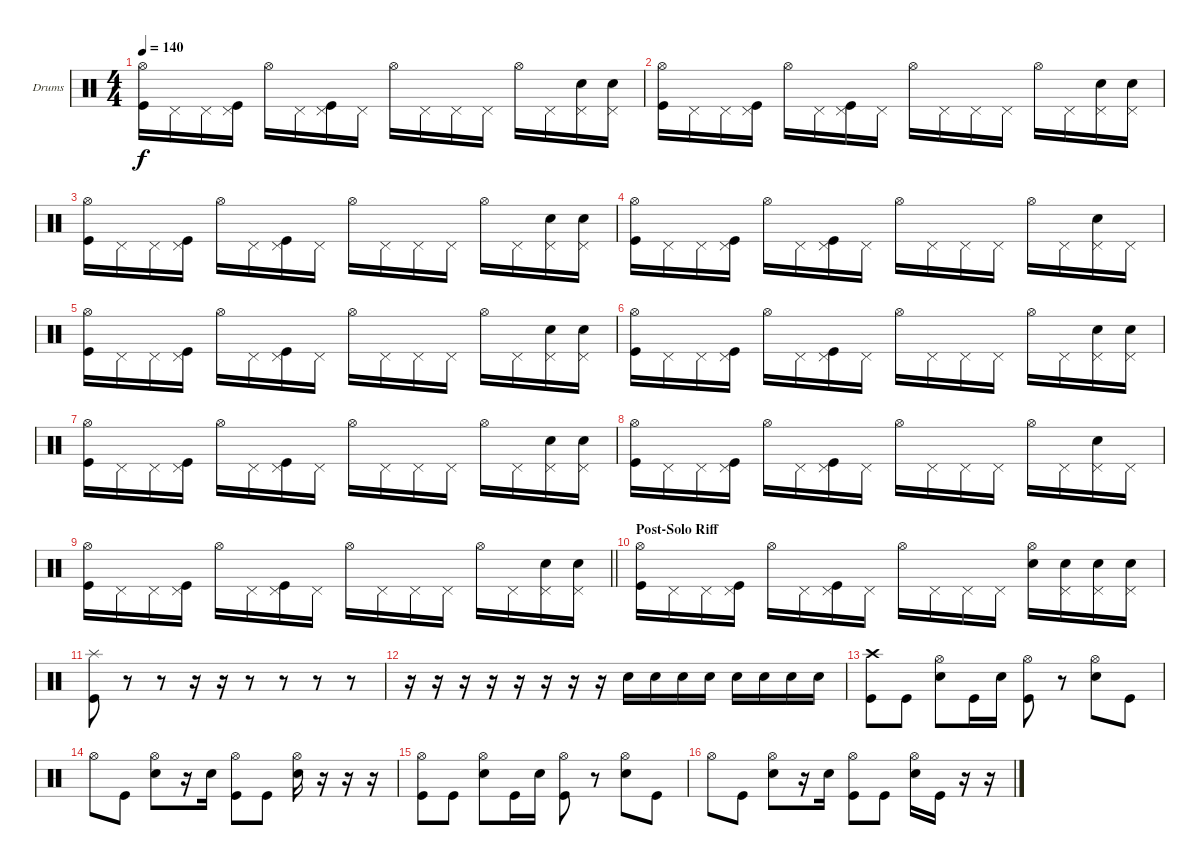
\bracketExtendMode groupsimilarinstruments
\firstSystemTrackNameOrientation horizontal
\otherSystemsTrackNameOrientation horizontal
\track ("Dave McClain" "Drums") {instrument percussion}
\staff {score}
\articulation defaults
\ts (4 4)
\tempo 140
\clef neutral
\ks c
("Hi-Hat (open)" "Kick (hit)").16{dy f} "Pedal Hi-Hat (hit)".16 "Pedal Hi-Hat (hit)".16 ("Pedal Hi-Hat (hit)" "Kick (hit)").16 "Hi-Hat (open)".16 "Pedal Hi-Hat (hit)".16 ("Pedal Hi-Hat (hit)" "Kick (hit)").16 "Pedal Hi-Hat (hit)".16 "Hi-Hat (open)".16 "Pedal Hi-Hat (hit)".16 "Pedal Hi-Hat (hit)".16 "Pedal Hi-Hat (hit)".16 "Hi-Hat (open)".16 "Pedal Hi-Hat (hit)".16 ("Pedal Hi-Hat (hit)" "Snare (hit) 2").16 ("Pedal Hi-Hat (hit)" "Snare (hit) 2").16 |
("Hi-Hat (open)" "Kick (hit)").16 "Pedal Hi-Hat (hit)".16 "Pedal Hi-Hat (hit)".16 ("Pedal Hi-Hat (hit)" "Kick (hit)").16 "Hi-Hat (open)".16 "Pedal Hi-Hat (hit)".16 ("Pedal Hi-Hat (hit)" "Kick (hit)").16 "Pedal Hi-Hat (hit)".16 "Hi-Hat (open)".16 "Pedal Hi-Hat (hit)".16 "Pedal Hi-Hat (hit)".16 "Pedal Hi-Hat (hit)".16 "Hi-Hat (open)".16 "Pedal Hi-Hat (hit)".16 ("Pedal Hi-Hat (hit)" "Snare (hit) 2").16 ("Pedal Hi-Hat (hit)" "Snare (hit) 2").16 |
("Hi-Hat (open)" "Kick (hit)").16 "Pedal Hi-Hat (hit)".16 "Pedal Hi-Hat (hit)".16 ("Pedal Hi-Hat (hit)" "Kick (hit)").16 "Hi-Hat (open)".16 "Pedal Hi-Hat (hit)".16 ("Pedal Hi-Hat (hit)" "Kick (hit)").16 "Pedal Hi-Hat (hit)".16 "Hi-Hat (open)".16 "Pedal Hi-Hat (hit)".16 "Pedal Hi-Hat (hit)".16 "Pedal Hi-Hat (hit)".16 "Hi-Hat (open)".16 "Pedal Hi-Hat (hit)".16 ("Pedal Hi-Hat (hit)" "Snare (hit) 2").16 ("Pedal Hi-Hat (hit)" "Snare (hit) 2").16 |
("Hi-Hat (open)" "Kick (hit)").16 "Pedal Hi-Hat (hit)".16 "Pedal Hi-Hat (hit)".16 ("Pedal Hi-Hat (hit)" "Kick (hit)").16 "Hi-Hat (open)".16 "Pedal Hi-Hat (hit)".16 ("Pedal Hi-Hat (hit)" "Kick (hit)").16 "Pedal Hi-Hat (hit)".16 "Hi-Hat (open)".16 "Pedal Hi-Hat (hit)".16 "Pedal Hi-Hat (hit)".16 "Pedal Hi-Hat (hit)".16 "Hi-Hat (open)".16 "Pedal Hi-Hat (hit)".16 ("Pedal Hi-Hat (hit)" "Snare (hit) 2").16 "Pedal Hi-Hat (hit)".16 |
("Hi-Hat (open)" "Kick (hit)").16 "Pedal Hi-Hat (hit)".16 "Pedal Hi-Hat (hit)".16 ("Pedal Hi-Hat (hit)" "Kick (hit)").16 "Hi-Hat (open)".16 "Pedal Hi-Hat (hit)".16 ("Pedal Hi-Hat (hit)" "Kick (hit)").16 "Pedal Hi-Hat (hit)".16 "Hi-Hat (open)".16 "Pedal Hi-Hat (hit)".16 "Pedal Hi-Hat (hit)".16 "Pedal Hi-Hat (hit)".16 "Hi-Hat (open)".16 "Pedal Hi-Hat (hit)".16 ("Pedal Hi-Hat (hit)" "Snare (hit) 2").16 ("Pedal Hi-Hat (hit)" "Snare (hit) 2").16 |
("Hi-Hat (open)" "Kick (hit)").16 "Pedal Hi-Hat (hit)".16 "Pedal Hi-Hat (hit)".16 ("Pedal Hi-Hat (hit)" "Kick (hit)").16 "Hi-Hat (open)".16 "Pedal Hi-Hat (hit)".16 ("Pedal Hi-Hat (hit)" "Kick (hit)").16 "Pedal Hi-Hat (hit)".16 "Hi-Hat (open)".16 "Pedal Hi-Hat (hit)".16 "Pedal Hi-Hat (hit)".16 "Pedal Hi-Hat (hit)".16 "Hi-Hat (open)".16 "Pedal Hi-Hat (hit)".16 ("Pedal Hi-Hat (hit)" "Snare (hit) 2").16 ("Pedal Hi-Hat (hit)" "Snare (hit) 2").16 |
("Hi-Hat (open)" "Kick (hit)").16 "Pedal Hi-Hat (hit)".16 "Pedal Hi-Hat (hit)".16 ("Pedal Hi-Hat (hit)" "Kick (hit)").16 "Hi-Hat (open)".16 "Pedal Hi-Hat (hit)".16 ("Pedal Hi-Hat (hit)" "Kick (hit)").16 "Pedal Hi-Hat (hit)".16 "Hi-Hat (open)".16 "Pedal Hi-Hat (hit)".16 "Pedal Hi-Hat (hit)".16 "Pedal Hi-Hat (hit)".16 "Hi-Hat (open)".16 "Pedal Hi-Hat (hit)".16 ("Pedal Hi-Hat (hit)" "Snare (hit) 2").16 ("Pedal Hi-Hat (hit)" "Snare (hit) 2").16 |
("Hi-Hat (open)" "Kick (hit)").16 "Pedal Hi-Hat (hit)".16 "Pedal Hi-Hat (hit)".16 ("Pedal Hi-Hat (hit)" "Kick (hit)").16 "Hi-Hat (open)".16 "Pedal Hi-Hat (hit)".16 ("Pedal Hi-Hat (hit)" "Kick (hit)").16 "Pedal Hi-Hat (hit)".16 "Hi-Hat (open)".16 "Pedal Hi-Hat (hit)".16 "Pedal Hi-Hat (hit)".16 "Pedal Hi-Hat (hit)".16 "Hi-Hat (open)".16 "Pedal Hi-Hat (hit)".16 ("Pedal Hi-Hat (hit)" "Snare (hit) 2").16 "Pedal Hi-Hat (hit)".16 |
\barLineRight lightlight
("Hi-Hat (open)" "Kick (hit)").16 "Pedal Hi-Hat (hit)".16 "Pedal Hi-Hat (hit)".16 ("Pedal Hi-Hat (hit)" "Kick (hit)").16 "Hi-Hat (open)".16 "Pedal Hi-Hat (hit)".16 ("Pedal Hi-Hat (hit)" "Kick (hit)").16 "Pedal Hi-Hat (hit)".16 "Hi-Hat (open)".16 "Pedal Hi-Hat (hit)".16 "Pedal Hi-Hat (hit)".16 "Pedal Hi-Hat (hit)".16 "Hi-Hat (open)".16 "Pedal Hi-Hat (hit)".16 ("Pedal Hi-Hat (hit)" "Snare (hit) 2").16 ("Pedal Hi-Hat (hit)" "Snare (hit) 2").16 |
\section ("" "Post-Solo Riff")
("Hi-Hat (open)" "Kick (hit)").16 "Pedal Hi-Hat (hit)".16 "Pedal Hi-Hat (hit)".16 ("Pedal Hi-Hat (hit)" "Kick (hit)").16 "Hi-Hat (open)".16 "Pedal Hi-Hat (hit)".16 ("Pedal Hi-Hat (hit)" "Kick (hit)").16 "Pedal Hi-Hat (hit)".16 "Hi-Hat (open)".16 "Pedal Hi-Hat (hit)".16 "Pedal Hi-Hat (hit)".16 "Pedal Hi-Hat (hit)".16 ("Hi-Hat (open)" "Snare (hit) 2").16 ("Pedal Hi-Hat (hit)" "Snare (hit) 2").16 ("Pedal Hi-Hat (hit)" "Snare (hit) 2").16 ("Pedal Hi-Hat (hit)" "Snare (hit) 2").16 |
("Splash (hit)" "Kick (hit)").8 r.8 r.8 r.16 r.16 r.8 r.8 r.8 r.8 |
r.16 r.16 r.16 r.16 r.16 r.16 r.16 r.16 "Snare (hit) 2".16 "Snare (hit) 2".16 "Snare (hit) 2".16 "Snare (hit) 2".16 "Snare (hit) 2".16 "Snare (hit) 2".16 "Snare (hit) 2".16 "Snare (hit) 2".16 |
("Crash high (hit)" "Kick (hit)").8 "Kick (hit)".8 ("Hi-Hat (open)" "Snare (hit) 2").8 "Kick (hit)".16 "Snare (hit) 2".16 ("Hi-Hat (open)" "Kick (hit)").8 r.8 ("Hi-Hat (open)" "Snare (hit) 2").8 "Kick (hit)".8 |
"Hi-Hat (open)".8 "Kick (hit)".8 ("Hi-Hat (open)" "Snare (hit) 2").8 r.16 "Snare (hit) 2".16 ("Hi-Hat (open)" "Kick (hit)").8 "Kick (hit)".8 ("Hi-Hat (open)" "Snare (hit) 2").16 r.16 r.16 r.16 |
("Hi-Hat (open)" "Kick (hit)").8 "Kick (hit)".8 ("Hi-Hat (open)" "Snare (hit) 2").8 "Kick (hit)".16 "Snare (hit) 2".16 ("Hi-Hat (open)" "Kick (hit)").8 r.8 ("Hi-Hat (open)" "Snare (hit) 2").8 "Kick (hit)".8 |
"Hi-Hat (open)".8 "Kick (hit)".8 ("Hi-Hat (open)" "Snare (hit) 2").8 r.16 "Snare (hit) 2".16 ("Hi-Hat (open)" "Kick (hit)").8 "Kick (hit)".8 ("Hi-Hat (open)" "Snare (hit) 2").16 "Kick (hit)".16 r.16 r.16
